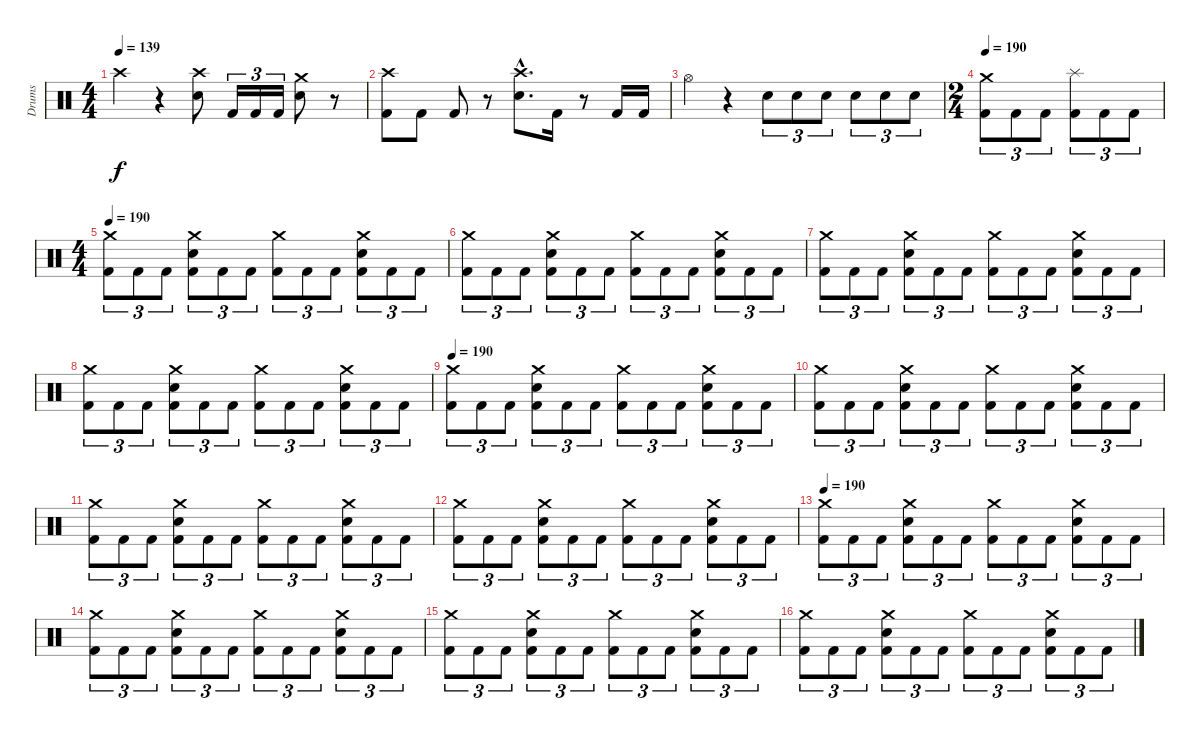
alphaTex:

\track ("Drums" "Drums") {instrument percussion}
\staff {score}
\articulation defaults
\ts (4 4)
\tempo 139
\clef neutral
\ks c "Crash high (hit)".4{dy f}
r.4 ("Crash high (hit)" "Electric Snare (hit)").8 "Kick (hit) 2".16{tu (3 2)} "Kick (hit) 2".16{tu (3 2)} "Kick (hit) 2".16{tu (3 2)} ("Crash medium (hit)" "Electric Snare (hit)").8 r.8 |
("Crash high (hit)" "Kick (hit) 2").8 "Kick (hit) 2".8 "Kick (hit) 2".8 r.8 ("Crash high (hit)"{hac} "Electric Snare (hit)"{hac}).8{d} "Kick (hit) 2".16 r.8 "Kick (hit) 2".16 "Kick (hit) 2".16 |
"Hi-Hat (open)".4 r.4 "Electric Snare (hit)".8{tu (3 2)} "Electric Snare (hit)".8{tu (3 2)} "Electric Snare (hit)".8{tu (3 2)} "Electric Snare (hit)".8{tu (3 2)} "Electric Snare (hit)".8{tu (3 2)} "Electric Snare (hit)".8{tu (3 2)} |
\ts (2 4)
\tempo 190
("Crash medium (hit)" "Kick (hit) 2").8{tu (3 2)} "Kick (hit) 2".8{tu (3 2)} "Kick (hit) 2".8{tu (3 2)} ("Splash (hit)" "Kick (hit) 2").8{tu (3 2)} "Kick (hit) 2".8{tu (3 2)} "Kick (hit) 2".8{tu (3 2)} |
\ts (4 4)
\tempo 190
("Crash medium (hit)" "Kick (hit) 2").8{tu (3 2)} "Kick (hit) 2".8{tu (3 2)} "Kick (hit) 2".8{tu (3 2)} ("Crash medium (hit)" "Electric Snare (hit)" "Kick (hit) 2").8{tu (3 2)} "Kick (hit) 2".8{tu (3 2)} "Kick (hit) 2".8{tu (3 2)} ("Crash medium (hit)" "Kick (hit) 2").8{tu (3 2)} "Kick (hit) 2".8{tu (3 2)} "Kick (hit) 2".8{tu (3 2)} ("Crash medium (hit)" "Electric Snare (hit)" "Kick (hit) 2").8{tu (3 2)} "Kick (hit) 2".8{tu (3 2)} "Kick (hit) 2".8{tu (3 2)} |
("Crash medium (hit)" "Kick (hit) 2").8{tu (3 2)} "Kick (hit) 2".8{tu (3 2)} "Kick (hit) 2".8{tu (3 2)} ("Crash medium (hit)" "Electric Snare (hit)" "Kick (hit) 2").8{tu (3 2)} "Kick (hit) 2".8{tu (3 2)} "Kick (hit) 2".8{tu (3 2)} ("Crash medium (hit)" "Kick (hit) 2").8{tu (3 2)} "Kick (hit) 2".8{tu (3 2)} "Kick (hit) 2".8{tu (3 2)} ("Crash medium (hit)" "Electric Snare (hit)" "Kick (hit) 2").8{tu (3 2)} "Kick (hit) 2".8{tu (3 2)} "Kick (hit) 2".8{tu (3 2)} |
("Crash medium (hit)" "Kick (hit) 2").8{tu (3 2)} "Kick (hit) 2".8{tu (3 2)} "Kick (hit) 2".8{tu (3 2)} ("Crash medium (hit)" "Electric Snare (hit)" "Kick (hit) 2").8{tu (3 2)} "Kick (hit) 2".8{tu (3 2)} "Kick (hit) 2".8{tu (3 2)} ("Crash medium (hit)" "Kick (hit) 2").8{tu (3 2)} "Kick (hit) 2".8{tu (3 2)} "Kick (hit) 2".8{tu (3 2)} ("Crash medium (hit)" "Electric Snare (hit)" "Kick (hit) 2").8{tu (3 2)} "Kick (hit) 2".8{tu (3 2)} "Kick (hit) 2".8{tu (3 2)} |
("Crash medium (hit)" "Kick (hit) 2").8{tu (3 2)} "Kick (hit) 2".8{tu (3 2)} "Kick (hit) 2".8{tu (3 2)} ("Crash medium (hit)" "Electric Snare (hit)" "Kick (hit) 2").8{tu (3 2)} "Kick (hit) 2".8{tu (3 2)} "Kick (hit) 2".8{tu (3 2)} ("Crash medium (hit)" "Kick (hit) 2").8{tu (3 2)} "Kick (hit) 2".8{tu (3 2)} "Kick (hit) 2".8{tu (3 2)} ("Crash medium (hit)" "Electric Snare (hit)" "Kick (hit) 2").8{tu (3 2)} "Kick (hit) 2".8{tu (3 2)} "Kick (hit) 2".8{tu (3 2)} |
\tempo 190
("Crash medium (hit)" "Kick (hit) 2").8{tu (3 2)} "Kick (hit) 2".8{tu (3 2)} "Kick (hit) 2".8{tu (3 2)} ("Crash medium (hit)" "Electric Snare (hit)" "Kick (hit) 2").8{tu (3 2)} "Kick (hit) 2".8{tu (3 2)} "Kick (hit) 2".8{tu (3 2)} ("Crash medium (hit)" "Kick (hit) 2").8{tu (3 2)} "Kick (hit) 2".8{tu (3 2)} "Kick (hit) 2".8{tu (3 2)} ("Crash medium (hit)" "Electric Snare (hit)" "Kick (hit) 2").8{tu (3 2)} "Kick (hit) 2".8{tu (3 2)} "Kick (hit) 2".8{tu (3 2)} |
("Crash medium (hit)" "Kick (hit) 2").8{tu (3 2)} "Kick (hit) 2".8{tu (3 2)} "Kick (hit) 2".8{tu (3 2)} ("Crash medium (hit)" "Electric Snare (hit)" "Kick (hit) 2").8{tu (3 2)} "Kick (hit) 2".8{tu (3 2)} "Kick (hit) 2".8{tu (3 2)} ("Crash medium (hit)" "Kick (hit) 2").8{tu (3 2)} "Kick (hit) 2".8{tu (3 2)} "Kick (hit) 2".8{tu (3 2)} ("Crash medium (hit)" "Electric Snare (hit)" "Kick (hit) 2").8{tu (3 2)} "Kick (hit) 2".8{tu (3 2)} "Kick (hit) 2".8{tu (3 2)} |
("Crash medium (hit)" "Kick (hit) 2").8{tu (3 2)} "Kick (hit) 2".8{tu (3 2)} "Kick (hit) 2".8{tu (3 2)} ("Crash medium (hit)" "Electric Snare (hit)" "Kick (hit) 2").8{tu (3 2)} "Kick (hit) 2".8{tu (3 2)} "Kick (hit) 2".8{tu (3 2)} ("Crash medium (hit)" "Kick (hit) 2").8{tu (3 2)} "Kick (hit) 2".8{tu (3 2)} "Kick (hit) 2".8{tu (3 2)} ("Crash medium (hit)" "Electric Snare (hit)" "Kick (hit) 2").8{tu (3 2)} "Kick (hit) 2".8{tu (3 2)} "Kick (hit) 2".8{tu (3 2)} |
("Crash medium (hit)" "Kick (hit) 2").8{tu (3 2)} "Kick (hit) 2".8{tu (3 2)} "Kick (hit) 2".8{tu (3 2)} ("Crash medium (hit)" "Electric Snare (hit)" "Kick (hit) 2").8{tu (3 2)} "Kick (hit) 2".8{tu (3 2)} "Kick (hit) 2".8{tu (3 2)} ("Crash medium (hit)" "Kick (hit) 2").8{tu (3 2)} "Kick (hit) 2".8{tu (3 2)} "Kick (hit) 2".8{tu (3 2)} ("Crash medium (hit)" "Electric Snare (hit)" "Kick (hit) 2").8{tu (3 2)} "Kick (hit) 2".8{tu (3 2)} "Kick (hit) 2".8{tu (3 2)} |
\tempo 190
("Crash medium (hit)" "Kick (hit) 2").8{tu (3 2)} "Kick (hit) 2".8{tu (3 2)} "Kick (hit) 2".8{tu (3 2)} ("Crash medium (hit)" "Electric Snare (hit)" "Kick (hit) 2").8{tu (3 2)} "Kick (hit) 2".8{tu (3 2)} "Kick (hit) 2".8{tu (3 2)} ("Crash medium (hit)" "Kick (hit) 2").8{tu (3 2)} "Kick (hit) 2".8{tu (3 2)} "Kick (hit) 2".8{tu (3 2)} ("Crash medium (hit)" "Electric Snare (hit)" "Kick (hit) 2").8{tu (3 2)} "Kick (hit) 2".8{tu (3 2)} "Kick (hit) 2".8{tu (3 2)} |
("Crash medium (hit)" "Kick (hit) 2").8{tu (3 2)} "Kick (hit) 2".8{tu (3 2)} "Kick (hit) 2".8{tu (3 2)} ("Crash medium (hit)" "Electric Snare (hit)" "Kick (hit) 2").8{tu (3 2)} "Kick (hit) 2".8{tu (3 2)} "Kick (hit) 2".8{tu (3 2)} ("Crash medium (hit)" "Kick (hit) 2").8{tu (3 2)} "Kick (hit) 2".8{tu (3 2)} "Kick (hit) 2".8{tu (3 2)} ("Crash medium (hit)" "Electric Snare (hit)" "Kick (hit) 2").8{tu (3 2)} "Kick (hit) 2".8{tu (3 2)} "Kick (hit) 2".8{tu (3 2)} |
("Crash medium (hit)" "Kick (hit) 2").8{tu (3 2)} "Kick (hit) 2".8{tu (3 2)} "Kick (hit) 2".8{tu (3 2)} ("Crash medium (hit)" "Electric Snare (hit)" "Kick (hit) 2").8{tu (3 2)} "Kick (hit) 2".8{tu (3 2)} "Kick (hit) 2".8{tu (3 2)} ("Crash medium (hit)" "Kick (hit) 2").8{tu (3 2)} "Kick (hit) 2".8{tu (3 2)} "Kick (hit) 2".8{tu (3 2)} ("Crash medium (hit)" "Electric Snare (hit)" "Kick (hit) 2").8{tu (3 2)} "Kick (hit) 2".8{tu (3 2)} "Kick (hit) 2".8{tu (3 2)} |
("Crash medium (hit)" "Kick (hit) 2").8{tu (3 2)} "Kick (hit) 2".8{tu (3 2)} "Kick (hit) 2".8{tu (3 2)} ("Crash medium (hit)" "Electric Snare (hit)" "Kick (hit) 2").8{tu (3 2)} "Kick (hit) 2".8{tu (3 2)} "Kick (hit) 2".8{tu (3 2)} ("Crash medium (hit)" "Kick (hit) 2").8{tu (3 2)} "Kick (hit) 2".8{tu (3 2)} "Kick (hit) 2".8{tu (3 2)} ("Crash medium (hit)" "Electric Snare (hit)" "Kick (hit) 2").8{tu (3 2)} "Kick (hit) 2".8{tu (3 2)} "Kick (hit) 2".8{tu (3 2)}
